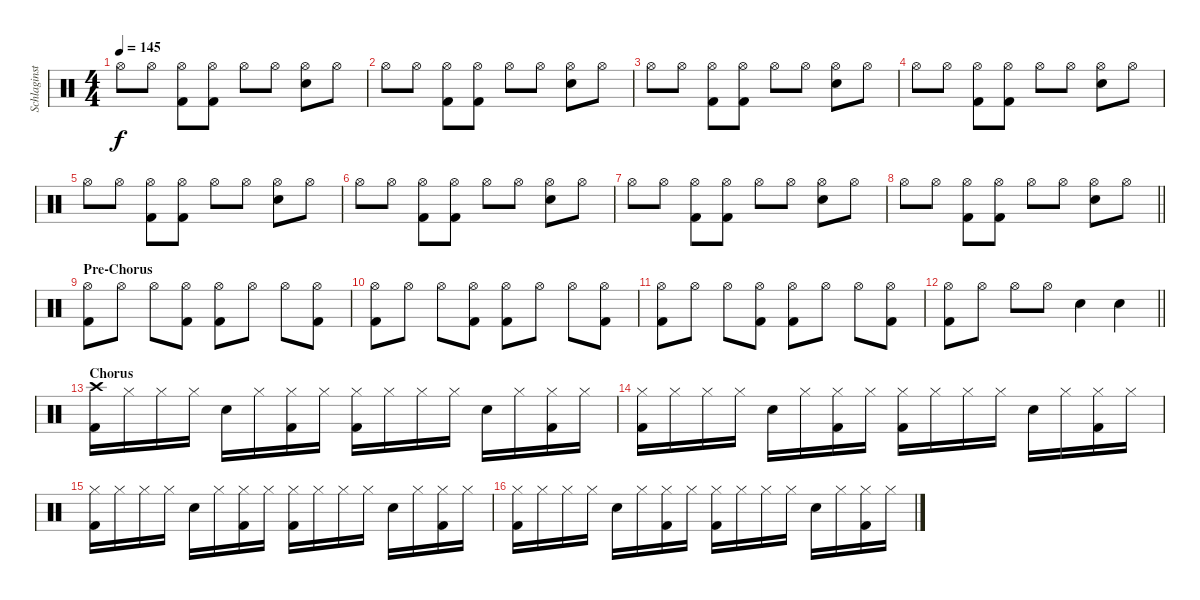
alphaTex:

\track ("Schlaginstrumente - Auswahl" "Schlaginst") {instrument percussion}
\staff {score}
\articulation defaults
\ts (4 4)
\tempo 145
\clef neutral
\ks c "Hi-Hat (open)".8{dy f} "Hi-Hat (open)".8
("Hi-Hat (open)" "Kick (hit) 2").8 ("Hi-Hat (open)" "Kick (hit) 2").8 "Hi-Hat (open)".8 "Hi-Hat (open)".8 ("Hi-Hat (open)" "Electric Snare (hit)").8 "Hi-Hat (open)".8 |
"Hi-Hat (open)".8 "Hi-Hat (open)".8 ("Hi-Hat (open)" "Kick (hit) 2").8 ("Hi-Hat (open)" "Kick (hit) 2").8 "Hi-Hat (open)".8 "Hi-Hat (open)".8 ("Hi-Hat (open)" "Electric Snare (hit)").8 "Hi-Hat (open)".8 |
"Hi-Hat (open)".8 "Hi-Hat (open)".8 ("Hi-Hat (open)" "Kick (hit) 2").8 ("Hi-Hat (open)" "Kick (hit) 2").8 "Hi-Hat (open)".8 "Hi-Hat (open)".8 ("Hi-Hat (open)" "Electric Snare (hit)").8 "Hi-Hat (open)".8 |
"Hi-Hat (open)".8 "Hi-Hat (open)".8 ("Hi-Hat (open)" "Kick (hit) 2").8 ("Hi-Hat (open)" "Kick (hit) 2").8 "Hi-Hat (open)".8 "Hi-Hat (open)".8 ("Hi-Hat (open)" "Electric Snare (hit)").8 "Hi-Hat (open)".8 |
"Hi-Hat (open)".8 "Hi-Hat (open)".8 ("Hi-Hat (open)" "Kick (hit) 2").8 ("Hi-Hat (open)" "Kick (hit) 2").8 "Hi-Hat (open)".8 "Hi-Hat (open)".8 ("Hi-Hat (open)" "Electric Snare (hit)").8 "Hi-Hat (open)".8 |
"Hi-Hat (open)".8 "Hi-Hat (open)".8 ("Hi-Hat (open)" "Kick (hit) 2").8 ("Hi-Hat (open)" "Kick (hit) 2").8 "Hi-Hat (open)".8 "Hi-Hat (open)".8 ("Hi-Hat (open)" "Electric Snare (hit)").8 "Hi-Hat (open)".8 |
"Hi-Hat (open)".8 "Hi-Hat (open)".8 ("Hi-Hat (open)" "Kick (hit) 2").8 ("Hi-Hat (open)" "Kick (hit) 2").8 "Hi-Hat (open)".8 "Hi-Hat (open)".8 ("Hi-Hat (open)" "Electric Snare (hit)").8 "Hi-Hat (open)".8 |
\barLineRight lightlight "Hi-Hat (open)".8 "Hi-Hat (open)".8
("Hi-Hat (open)" "Kick (hit) 2").8 ("Hi-Hat (open)" "Kick (hit) 2").8 "Hi-Hat (open)".8 "Hi-Hat (open)".8 ("Hi-Hat (open)" "Electric Snare (hit)").8 "Hi-Hat (open)".8 |
\section ("" "Pre-Chorus")
("Hi-Hat (open)" "Kick (hit) 2").8 "Hi-Hat (open)".8 "Hi-Hat (open)".8 ("Hi-Hat (open)" "Kick (hit) 2").8 ("Hi-Hat (open)" "Kick (hit) 2").8 "Hi-Hat (open)".8 "Hi-Hat (open)".8 ("Hi-Hat (open)" "Kick (hit) 2").8 |
("Hi-Hat (open)" "Kick (hit) 2").8 "Hi-Hat (open)".8 "Hi-Hat (open)".8 ("Hi-Hat (open)" "Kick (hit) 2").8 ("Hi-Hat (open)" "Kick (hit) 2").8 "Hi-Hat (open)".8 "Hi-Hat (open)".8 ("Hi-Hat (open)" "Kick (hit) 2").8 |
("Hi-Hat (open)" "Kick (hit) 2").8 "Hi-Hat (open)".8 "Hi-Hat (open)".8 ("Hi-Hat (open)" "Kick (hit) 2").8 ("Hi-Hat (open)" "Kick (hit) 2").8 "Hi-Hat (open)".8 "Hi-Hat (open)".8 ("Hi-Hat (open)" "Kick (hit) 2").8 |
\barLineRight lightlight
("Hi-Hat (open)" "Kick (hit) 2").8 "Hi-Hat (open)".8 "Hi-Hat (open)".8 "Hi-Hat (open)".8 "Electric Snare (hit)".4 "Electric Snare (hit)".4 |
\section ("" "Chorus")
("Crash high (hit)" "Kick (hit) 2").16 "Hi-Hat (closed)".16 "Hi-Hat (closed)".16 "Hi-Hat (closed)".16 "Electric Snare (hit)".16 "Hi-Hat (closed)".16 ("Hi-Hat (closed)" "Kick (hit) 2").16 "Hi-Hat (closed)".16 ("Hi-Hat (closed)" "Kick (hit) 2").16 "Hi-Hat (closed)".16 "Hi-Hat (closed)".16 "Hi-Hat (closed)".16 "Electric Snare (hit)".16 "Hi-Hat (closed)".16 ("Hi-Hat (closed)" "Kick (hit) 2").16 "Hi-Hat (closed)".16 |
("Hi-Hat (closed)" "Kick (hit) 2").16 "Hi-Hat (closed)".16 "Hi-Hat (closed)".16 "Hi-Hat (closed)".16 "Electric Snare (hit)".16 "Hi-Hat (closed)".16 ("Hi-Hat (closed)" "Kick (hit) 2").16 "Hi-Hat (closed)".16 ("Hi-Hat (closed)" "Kick (hit) 2").16 "Hi-Hat (closed)".16 "Hi-Hat (closed)".16 "Hi-Hat (closed)".16 "Electric Snare (hit)".16 "Hi-Hat (closed)".16 ("Hi-Hat (closed)" "Kick (hit) 2").16 "Hi-Hat (closed)".16 |
("Hi-Hat (closed)" "Kick (hit) 2").16 "Hi-Hat (closed)".16 "Hi-Hat (closed)".16 "Hi-Hat (closed)".16 "Electric Snare (hit)".16 "Hi-Hat (closed)".16 ("Hi-Hat (closed)" "Kick (hit) 2").16 "Hi-Hat (closed)".16 ("Hi-Hat (closed)" "Kick (hit) 2").16 "Hi-Hat (closed)".16 "Hi-Hat (closed)".16 "Hi-Hat (closed)".16 "Electric Snare (hit)".16 "Hi-Hat (closed)".16 ("Hi-Hat (closed)" "Kick (hit) 2").16 "Hi-Hat (closed)".16 |
("Hi-Hat (closed)" "Kick (hit) 2").16 "Hi-Hat (closed)".16 "Hi-Hat (closed)".16 "Hi-Hat (closed)".16 "Electric Snare (hit)".16 "Hi-Hat (closed)".16 ("Hi-Hat (closed)" "Kick (hit) 2").16 "Hi-Hat (closed)".16 ("Hi-Hat (closed)" "Kick (hit) 2").16 "Hi-Hat (closed)".16 "Hi-Hat (closed)".16 "Hi-Hat (closed)".16 "Electric Snare (hit)".16 "Hi-Hat (closed)".16 ("Hi-Hat (closed)" "Kick (hit) 2").16 "Hi-Hat (closed)".16
